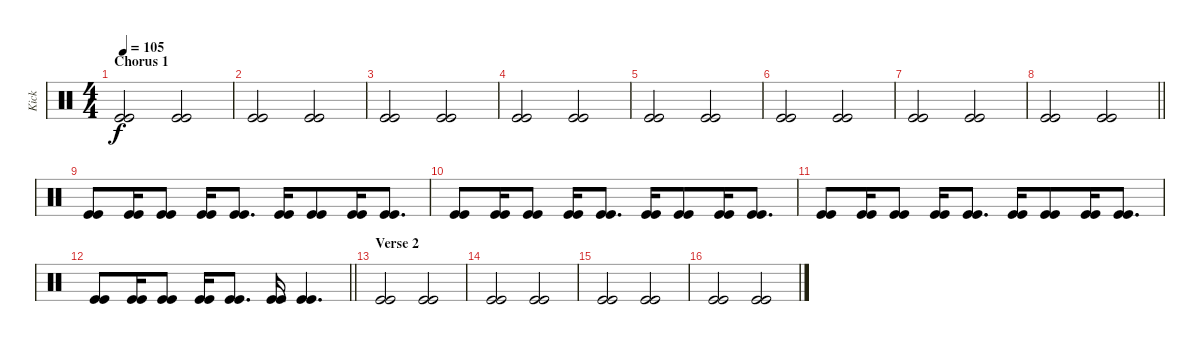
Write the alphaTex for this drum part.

\track ("Kick" "Kick") {instrument percussion}
\staff {score}
\articulation defaults
\ts (4 4)
\section ("" "Chorus 1")
\tempo 105
\clef neutral
\ks c
("Kick (hit)" "Kick (hit)").2{dy f beam merge} ("Kick (hit)" "Kick (hit)").2 |
("Kick (hit)" "Kick (hit)").2 ("Kick (hit)" "Kick (hit)").2 |
("Kick (hit)" "Kick (hit)").2{beam merge} ("Kick (hit)" "Kick (hit)").2 |
("Kick (hit)" "Kick (hit)").2 ("Kick (hit)" "Kick (hit)").2 |
("Kick (hit)" "Kick (hit)").2 ("Kick (hit)" "Kick (hit)").2 |
("Kick (hit)" "Kick (hit)").2 ("Kick (hit)" "Kick (hit)").2 |
("Kick (hit)" "Kick (hit)").2 ("Kick (hit)" "Kick (hit)").2 |
\barLineRight lightlight
("Kick (hit)" "Kick (hit)").2{beam merge} ("Kick (hit)" "Kick (hit)").2 |
("Kick (hit)" "Kick (hit)").8 ("Kick (hit)" "Kick (hit)").16{beam merge} ("Kick (hit)" "Kick (hit)").8 ("Kick (hit)" "Kick (hit)").16{beam merge} ("Kick (hit)" "Kick (hit)").8{d} ("Kick (hit)" "Kick (hit)").16 ("Kick (hit)" "Kick (hit)").8{beam merge} ("Kick (hit)" "Kick (hit)").16 ("Kick (hit)" "Kick (hit)").8{d} |
("Kick (hit)" "Kick (hit)").8 ("Kick (hit)" "Kick (hit)").16{beam merge} ("Kick (hit)" "Kick (hit)").8 ("Kick (hit)" "Kick (hit)").16{beam merge} ("Kick (hit)" "Kick (hit)").8{d} ("Kick (hit)" "Kick (hit)").16 ("Kick (hit)" "Kick (hit)").8{beam merge} ("Kick (hit)" "Kick (hit)").16 ("Kick (hit)" "Kick (hit)").8{d} |
("Kick (hit)" "Kick (hit)").8 ("Kick (hit)" "Kick (hit)").16{beam merge} ("Kick (hit)" "Kick (hit)").8 ("Kick (hit)" "Kick (hit)").16{beam merge} ("Kick (hit)" "Kick (hit)").8{d} ("Kick (hit)" "Kick (hit)").16 ("Kick (hit)" "Kick (hit)").8{beam merge} ("Kick (hit)" "Kick (hit)").16 ("Kick (hit)" "Kick (hit)").8{d} |
\barLineRight lightlight
("Kick (hit)" "Kick (hit)").8 ("Kick (hit)" "Kick (hit)").16{beam merge} ("Kick (hit)" "Kick (hit)").8 ("Kick (hit)" "Kick (hit)").16{beam merge} ("Kick (hit)" "Kick (hit)").8{d} ("Kick (hit)" "Kick (hit)").16 ("Kick (hit)" "Kick (hit)").4{d} |
\section ("" "Verse 2")
("Kick (hit)" "Kick (hit)").2{beam merge} ("Kick (hit)" "Kick (hit)").2 |
("Kick (hit)" "Kick (hit)").2{beam merge} ("Kick (hit)" "Kick (hit)").2 |
("Kick (hit)" "Kick (hit)").2{beam merge} ("Kick (hit)" "Kick (hit)").2 |
("Kick (hit)" "Kick (hit)").2 ("Kick (hit)" "Kick (hit)").2
